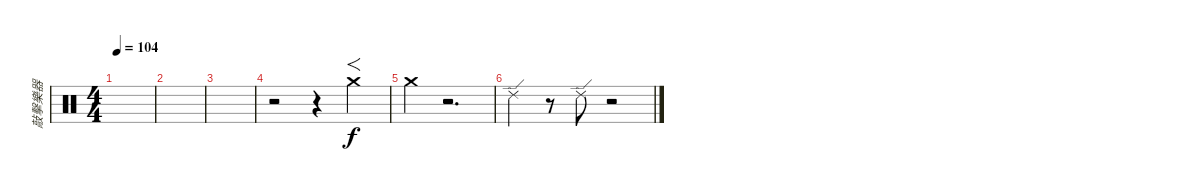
\track ("敲擊樂器" "敲擊樂器") {instrument percussion}
\staff {score}
\articulation defaults
\ts (4 4)
\tempo 104
\clef neutral
\ks c
|
|
|
r.2 r.4 "Crash medium (hit)".4{f} |
"Crash medium (hit)".4 r.2{d} |
"Ride (edge) 2".4 r.8 "Ride (edge) 2".8 r.2
